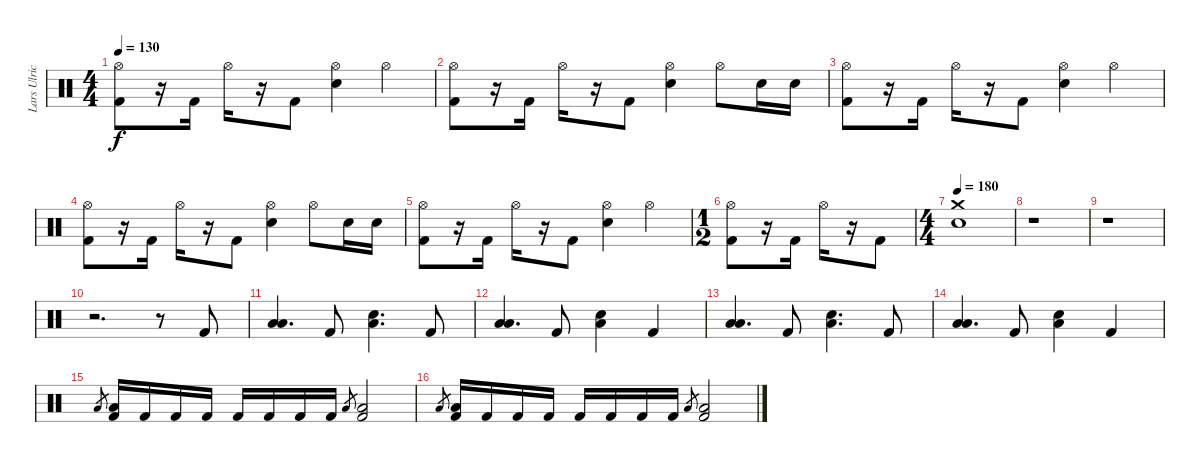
\track ("Lars Ulrich" "Lars Ulric") {instrument percussion}
\staff {score}
\articulation defaults
\ts (4 4)
\tempo 130
\clef neutral
\ks c
("Hi-Hat (open)" "Kick (hit) 2").8{dy f} r.16 "Kick (hit) 2".16 "Hi-Hat (open)".16 r.16 "Kick (hit) 2".8 ("Hi-Hat (open)" "Electric Snare (hit)").4 "Hi-Hat (open)".4 |
("Hi-Hat (open)" "Kick (hit) 2").8 r.16 "Kick (hit) 2".16 "Hi-Hat (open)".16 r.16 "Kick (hit) 2".8 ("Hi-Hat (open)" "Electric Snare (hit)").4 "Hi-Hat (open)".8 "Electric Snare (hit)".16 "Electric Snare (hit)".16 |
("Hi-Hat (open)" "Kick (hit) 2").8 r.16 "Kick (hit) 2".16 "Hi-Hat (open)".16 r.16 "Kick (hit) 2".8 ("Hi-Hat (open)" "Electric Snare (hit)").4 "Hi-Hat (open)".4 |
("Hi-Hat (open)" "Kick (hit) 2").8 r.16 "Kick (hit) 2".16 "Hi-Hat (open)".16 r.16 "Kick (hit) 2".8 ("Hi-Hat (open)" "Electric Snare (hit)").4 "Hi-Hat (open)".8 "Electric Snare (hit)".16 "Electric Snare (hit)".16 |
("Hi-Hat (open)" "Kick (hit) 2").8 r.16 "Kick (hit) 2".16 "Hi-Hat (open)".16 r.16 "Kick (hit) 2".8 ("Hi-Hat (open)" "Electric Snare (hit)").4 "Hi-Hat (open)".4 |
\ts (1 2)
("Hi-Hat (open)" "Kick (hit) 2").8 r.16 "Kick (hit) 2".16 "Hi-Hat (open)".16 r.16 "Kick (hit) 2".8 |
\ts (4 4)
\tempo 180
("Crash medium (hit)" "Electric Snare (hit)").1 |
r.1 |
r.1 |
r.2{d} r.8 "Kick (hit) 2".8 |
("Low Tom (hit)" "Low Floor Tom (hit)").4{d} "Kick (hit) 2".8 ("Electric Snare (hit)" "Low Tom (hit)").4{d} "Kick (hit) 2".8 |
("Low Tom (hit)" "Low Floor Tom (hit)").4{d} "Kick (hit) 2".8 ("Electric Snare (hit)" "Low Tom (hit)").4 "Kick (hit) 2".4 |
("Low Tom (hit)" "Low Floor Tom (hit)").4{d} "Kick (hit) 2".8 ("Electric Snare (hit)" "Low Tom (hit)").4{d} "Kick (hit) 2".8 |
("Low Tom (hit)" "Low Floor Tom (hit)").4{d} "Kick (hit) 2".8 ("Electric Snare (hit)" "Low Tom (hit)").4 "Kick (hit) 2".4 |
"Low Floor Tom (hit)".8{gr} ("Low Floor Tom (hit)" "Kick (hit) 2").16 "Kick (hit) 2".16 "Kick (hit) 2".16 "Kick (hit) 2".16 "Kick (hit) 2".16 "Kick (hit) 2".16 "Kick (hit) 2".16 "Kick (hit) 2".16 "Low Floor Tom (hit)".8{gr} ("Low Floor Tom (hit)" "Kick (hit) 2").2 |
"Low Floor Tom (hit)".8{gr} ("Low Floor Tom (hit)" "Kick (hit) 2").16 "Kick (hit) 2".16 "Kick (hit) 2".16 "Kick (hit) 2".16 "Kick (hit) 2".16 "Kick (hit) 2".16 "Kick (hit) 2".16 "Kick (hit) 2".16 "Low Floor Tom (hit)".8{gr} ("Low Floor Tom (hit)" "Kick (hit) 2").2
